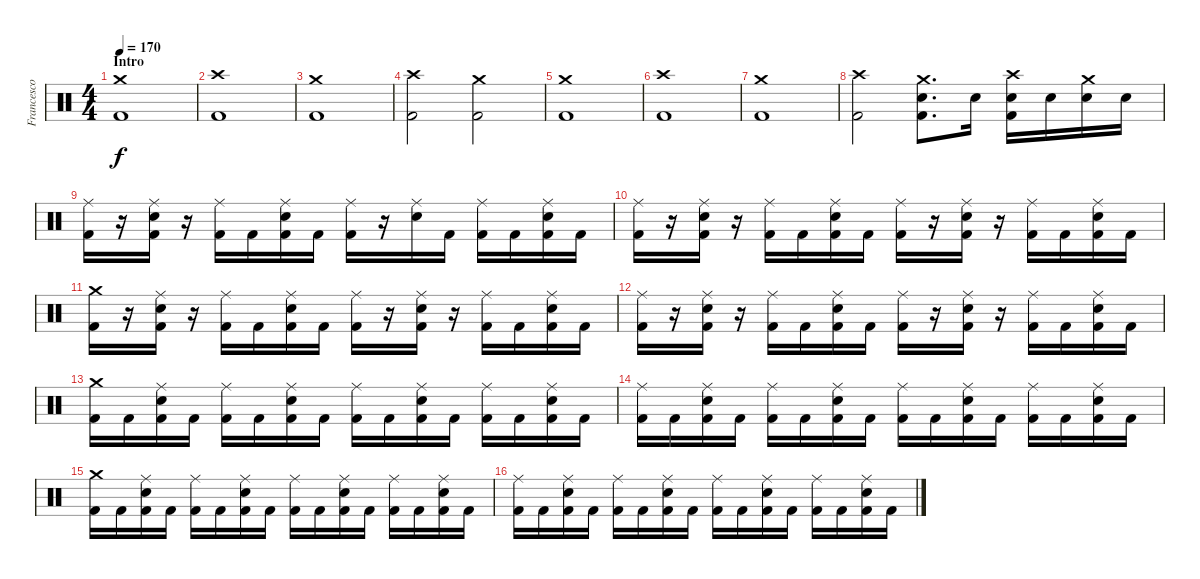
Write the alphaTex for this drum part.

\track ("Francesco Tresa" "Francesco ") {instrument percussion}
\staff {score}
\articulation defaults
\ts (4 4)
\section ("" "Intro")
\tempo 170
\clef neutral
\ks c
("Crash medium (hit)" "Kick (hit) 2").1{dy f} |
("Crash high (hit)" "Kick (hit) 2").1 |
("Crash medium (hit)" "Kick (hit) 2").1 |
("Crash high (hit)" "Kick (hit) 2").2 ("Crash medium (hit)" "Kick (hit) 2").2 |
("Crash medium (hit)" "Kick (hit) 2").1 |
("Crash high (hit)" "Kick (hit) 2").1 |
("Crash medium (hit)" "Kick (hit) 2").1 |
("Crash high (hit)" "Kick (hit) 2").2 ("Crash medium (hit)" "Kick (hit) 2" "Electric Snare (hit)").8{d} "Electric Snare (hit)".16 ("Crash high (hit)" "Kick (hit) 2" "Electric Snare (hit)").16 "Electric Snare (hit)".16 ("Crash medium (hit)" "Electric Snare (hit)").16 "Electric Snare (hit)".16 |
("Ride (middle)" "Kick (hit) 2").16 r.16 ("Ride (middle)" "Kick (hit) 2" "Electric Snare (hit)").16 r.16 ("Ride (middle)" "Kick (hit) 2").16 "Kick (hit) 2".16 ("Ride (middle)" "Kick (hit) 2" "Electric Snare (hit)").16 "Kick (hit) 2".16 ("Ride (middle)" "Kick (hit) 2").16 r.16 ("Ride (middle)" "Electric Snare (hit)").16 "Kick (hit) 2".16 ("Ride (middle)" "Kick (hit) 2").16 "Kick (hit) 2".16 ("Ride (middle)" "Kick (hit) 2" "Electric Snare (hit)").16 "Kick (hit) 2".16 |
("Ride (middle)" "Kick (hit) 2").16 r.16 ("Ride (middle)" "Kick (hit) 2" "Electric Snare (hit)").16 r.16 ("Ride (middle)" "Kick (hit) 2").16 "Kick (hit) 2".16 ("Ride (middle)" "Kick (hit) 2" "Electric Snare (hit)").16 "Kick (hit) 2".16 ("Ride (middle)" "Kick (hit) 2").16 r.16 ("Ride (middle)" "Kick (hit) 2" "Electric Snare (hit)").16 r.16 ("Ride (middle)" "Kick (hit) 2").16 "Kick (hit) 2".16 ("Ride (middle)" "Kick (hit) 2" "Electric Snare (hit)").16 "Kick (hit) 2".16 |
("Crash medium (hit)" "Kick (hit) 2").16 r.16 ("Ride (middle)" "Kick (hit) 2" "Electric Snare (hit)").16 r.16 ("Ride (middle)" "Kick (hit) 2").16 "Kick (hit) 2".16 ("Ride (middle)" "Kick (hit) 2" "Electric Snare (hit)").16 "Kick (hit) 2".16 ("Ride (middle)" "Kick (hit) 2").16 r.16 ("Ride (middle)" "Kick (hit) 2" "Electric Snare (hit)").16 r.16 ("Ride (middle)" "Kick (hit) 2").16 "Kick (hit) 2".16 ("Ride (middle)" "Kick (hit) 2" "Electric Snare (hit)").16 "Kick (hit) 2".16 |
("Ride (middle)" "Kick (hit) 2").16 r.16 ("Ride (middle)" "Kick (hit) 2" "Electric Snare (hit)").16 r.16 ("Ride (middle)" "Kick (hit) 2").16 "Kick (hit) 2".16 ("Ride (middle)" "Kick (hit) 2" "Electric Snare (hit)").16 "Kick (hit) 2".16 ("Ride (middle)" "Kick (hit) 2").16 r.16 ("Ride (middle)" "Kick (hit) 2" "Electric Snare (hit)").16 r.16 ("Ride (middle)" "Kick (hit) 2").16 "Kick (hit) 2".16 ("Ride (middle)" "Kick (hit) 2" "Electric Snare (hit)").16 "Kick (hit) 2".16 |
("Crash medium (hit)" "Kick (hit) 2").16 "Kick (hit) 2".16 ("Ride (middle)" "Kick (hit) 2" "Electric Snare (hit)").16 "Kick (hit) 2".16 ("Ride (middle)" "Kick (hit) 2").16 "Kick (hit) 2".16 ("Ride (middle)" "Kick (hit) 2" "Electric Snare (hit)").16 "Kick (hit) 2".16 ("Ride (middle)" "Kick (hit) 2").16 "Kick (hit) 2".16 ("Ride (middle)" "Kick (hit) 2" "Electric Snare (hit)").16 "Kick (hit) 2".16 ("Ride (middle)" "Kick (hit) 2").16 "Kick (hit) 2".16 ("Ride (middle)" "Kick (hit) 2" "Electric Snare (hit)").16 "Kick (hit) 2".16 |
("Ride (middle)" "Kick (hit) 2").16 "Kick (hit) 2".16 ("Ride (middle)" "Kick (hit) 2" "Electric Snare (hit)").16 "Kick (hit) 2".16 ("Ride (middle)" "Kick (hit) 2").16 "Kick (hit) 2".16 ("Ride (middle)" "Kick (hit) 2" "Electric Snare (hit)").16 "Kick (hit) 2".16 ("Ride (middle)" "Kick (hit) 2").16 "Kick (hit) 2".16 ("Ride (middle)" "Kick (hit) 2" "Electric Snare (hit)").16 "Kick (hit) 2".16 ("Ride (middle)" "Kick (hit) 2").16 "Kick (hit) 2".16 ("Ride (middle)" "Kick (hit) 2" "Electric Snare (hit)").16 "Kick (hit) 2".16 |
("Crash medium (hit)" "Kick (hit) 2").16 "Kick (hit) 2".16 ("Ride (middle)" "Kick (hit) 2" "Electric Snare (hit)").16 "Kick (hit) 2".16 ("Ride (middle)" "Kick (hit) 2").16 "Kick (hit) 2".16 ("Ride (middle)" "Kick (hit) 2" "Electric Snare (hit)").16 "Kick (hit) 2".16 ("Ride (middle)" "Kick (hit) 2").16 "Kick (hit) 2".16 ("Ride (middle)" "Kick (hit) 2" "Electric Snare (hit)").16 "Kick (hit) 2".16 ("Ride (middle)" "Kick (hit) 2").16 "Kick (hit) 2".16 ("Ride (middle)" "Kick (hit) 2" "Electric Snare (hit)").16 "Kick (hit) 2".16 |
("Ride (middle)" "Kick (hit) 2").16 "Kick (hit) 2".16 ("Ride (middle)" "Kick (hit) 2" "Electric Snare (hit)").16 "Kick (hit) 2".16 ("Ride (middle)" "Kick (hit) 2").16 "Kick (hit) 2".16 ("Ride (middle)" "Kick (hit) 2" "Electric Snare (hit)").16 "Kick (hit) 2".16 ("Ride (middle)" "Kick (hit) 2").16 "Kick (hit) 2".16 ("Ride (middle)" "Kick (hit) 2" "Electric Snare (hit)").16 "Kick (hit) 2".16 ("Ride (middle)" "Kick (hit) 2").16 "Kick (hit) 2".16 ("Ride (middle)" "Kick (hit) 2" "Electric Snare (hit)").16 "Kick (hit) 2".16
